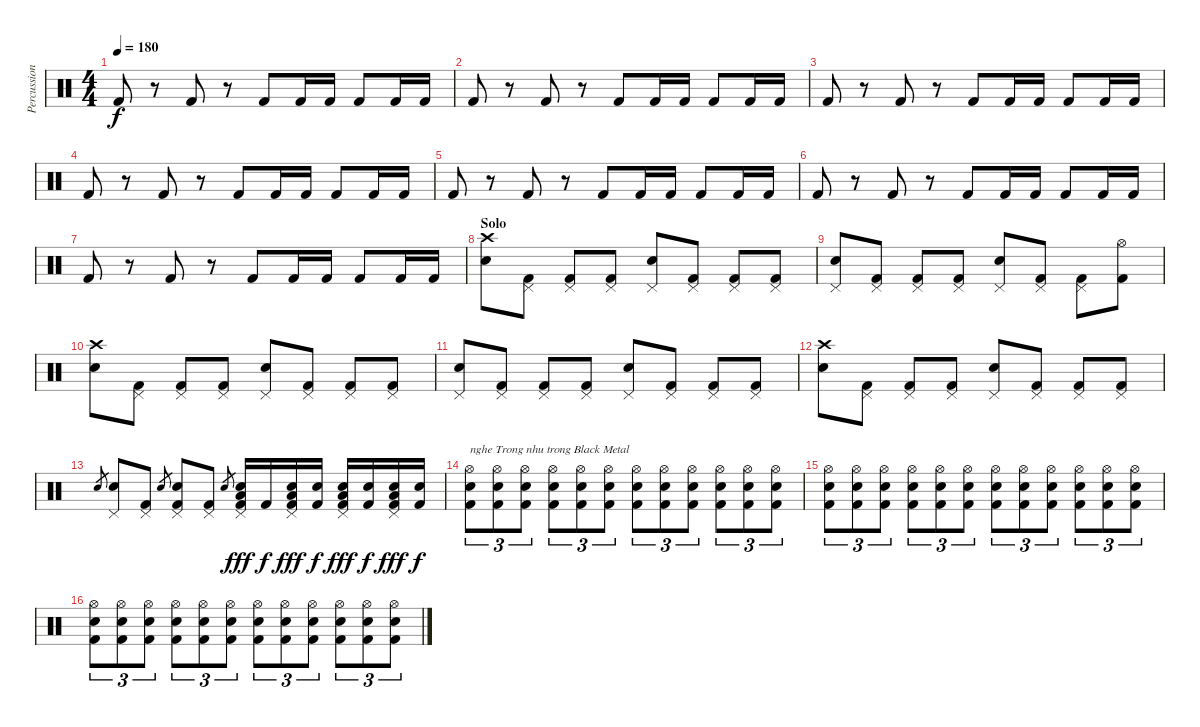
\track ("Percussion" "Percussion") {instrument percussion}
\staff {score}
\articulation defaults
\ts (4 4)
\tempo 180
\clef neutral
\ks c "Kick (hit) 2".8{dy f}
r.8 "Kick (hit) 2".8 r.8 "Kick (hit) 2".8 "Kick (hit) 2".16 "Kick (hit) 2".16 "Kick (hit) 2".8 "Kick (hit) 2".16 "Kick (hit) 2".16 |
"Kick (hit) 2".8 r.8 "Kick (hit) 2".8 r.8 "Kick (hit) 2".8 "Kick (hit) 2".16 "Kick (hit) 2".16 "Kick (hit) 2".8 "Kick (hit) 2".16 "Kick (hit) 2".16 |
"Kick (hit) 2".8 r.8 "Kick (hit) 2".8 r.8 "Kick (hit) 2".8 "Kick (hit) 2".16 "Kick (hit) 2".16 "Kick (hit) 2".8 "Kick (hit) 2".16 "Kick (hit) 2".16 |
"Kick (hit) 2".8 r.8 "Kick (hit) 2".8 r.8 "Kick (hit) 2".8 "Kick (hit) 2".16 "Kick (hit) 2".16 "Kick (hit) 2".8 "Kick (hit) 2".16 "Kick (hit) 2".16 |
"Kick (hit) 2".8 r.8 "Kick (hit) 2".8 r.8 "Kick (hit) 2".8 "Kick (hit) 2".16 "Kick (hit) 2".16 "Kick (hit) 2".8 "Kick (hit) 2".16 "Kick (hit) 2".16 |
"Kick (hit) 2".8 r.8 "Kick (hit) 2".8 r.8 "Kick (hit) 2".8 "Kick (hit) 2".16 "Kick (hit) 2".16 "Kick (hit) 2".8 "Kick (hit) 2".16 "Kick (hit) 2".16 |
"Kick (hit) 2".8 r.8 "Kick (hit) 2".8 r.8 "Kick (hit) 2".8 "Kick (hit) 2".16 "Kick (hit) 2".16 "Kick (hit) 2".8 "Kick (hit) 2".16 "Kick (hit) 2".16 |
\section ("" "Solo")
("Crash high (hit)" "Electric Snare (hit)").8 ("Pedal Hi-Hat (hit)" "Kick (hit) 2").8 ("Pedal Hi-Hat (hit)" "Kick (hit) 2").8 ("Pedal Hi-Hat (hit)" "Kick (hit) 2").8 ("Pedal Hi-Hat (hit)" "Electric Snare (hit)").8 ("Pedal Hi-Hat (hit)" "Kick (hit) 2").8 ("Pedal Hi-Hat (hit)" "Kick (hit) 2").8 ("Pedal Hi-Hat (hit)" "Kick (hit) 2").8 |
("Pedal Hi-Hat (hit)" "Electric Snare (hit)").8 ("Pedal Hi-Hat (hit)" "Kick (hit) 2").8 ("Pedal Hi-Hat (hit)" "Kick (hit) 2").8 ("Pedal Hi-Hat (hit)" "Kick (hit) 2").8 ("Pedal Hi-Hat (hit)" "Electric Snare (hit)").8 ("Pedal Hi-Hat (hit)" "Kick (hit) 2").8 ("Pedal Hi-Hat (hit)" "Kick (hit) 2").8 ("Hi-Hat (open)" "Kick (hit) 2").8 |
("Crash high (hit)" "Electric Snare (hit)").8 ("Pedal Hi-Hat (hit)" "Kick (hit) 2").8 ("Pedal Hi-Hat (hit)" "Kick (hit) 2").8 ("Pedal Hi-Hat (hit)" "Kick (hit) 2").8 ("Pedal Hi-Hat (hit)" "Electric Snare (hit)").8 ("Pedal Hi-Hat (hit)" "Kick (hit) 2").8 ("Pedal Hi-Hat (hit)" "Kick (hit) 2").8 ("Pedal Hi-Hat (hit)" "Kick (hit) 2").8 |
("Pedal Hi-Hat (hit)" "Electric Snare (hit)").8 ("Pedal Hi-Hat (hit)" "Kick (hit) 2").8 ("Pedal Hi-Hat (hit)" "Kick (hit) 2").8 ("Pedal Hi-Hat (hit)" "Kick (hit) 2").8 ("Pedal Hi-Hat (hit)" "Electric Snare (hit)").8 ("Pedal Hi-Hat (hit)" "Kick (hit) 2").8 ("Pedal Hi-Hat (hit)" "Kick (hit) 2").8 ("Pedal Hi-Hat (hit)" "Kick (hit) 2").8 |
("Crash high (hit)" "Electric Snare (hit)").8 ("Pedal Hi-Hat (hit)" "Kick (hit) 2").8 ("Pedal Hi-Hat (hit)" "Kick (hit) 2").8 ("Pedal Hi-Hat (hit)" "Kick (hit) 2").8 ("Pedal Hi-Hat (hit)" "Electric Snare (hit)").8 ("Pedal Hi-Hat (hit)" "Kick (hit) 2").8 ("Pedal Hi-Hat (hit)" "Kick (hit) 2").8 ("Pedal Hi-Hat (hit)" "Kick (hit) 2").8 |
"Electric Snare (hit)".8{gr} ("Pedal Hi-Hat (hit)" "Electric Snare (hit)").8 ("Pedal Hi-Hat (hit)" "Kick (hit) 2").8 "Electric Snare (hit)".8{gr} ("Pedal Hi-Hat (hit)" "Electric Snare (hit)" "Kick (hit) 2").8 ("Pedal Hi-Hat (hit)" "Kick (hit) 2").8 "Electric Snare (hit)".8{gr} ("Pedal Hi-Hat (hit)" "Low Tom (hit)" "Electric Snare (hit)" "Kick (hit) 2").16{dy fff} "Kick (hit) 2".16{dy f} ("Pedal Hi-Hat (hit)" "Low Tom (hit)" "Electric Snare (hit)" "Kick (hit) 2").16{dy fff} ("Electric Snare (hit)" "Kick (hit) 2").16{dy f} ("Pedal Hi-Hat (hit)" "Low Tom (hit)" "Electric Snare (hit)" "Kick (hit) 2").16{dy fff} ("Electric Snare (hit)" "Kick (hit) 2").16{dy f} ("Pedal Hi-Hat (hit)" "Low Tom (hit)" "Electric Snare (hit)" "Kick (hit) 2").16{dy fff} ("Electric Snare (hit)" "Kick (hit) 2").16{dy f} |
("Hi-Hat (open)" "Electric Snare (hit)" "Kick (hit) 2").8{tu (3 2) txt "nghe Trong nhu trong Black Metal"} ("Hi-Hat (open)" "Electric Snare (hit)" "Kick (hit) 2").8{tu (3 2)} ("Hi-Hat (open)" "Electric Snare (hit)" "Kick (hit) 2").8{tu (3 2)} ("Hi-Hat (open)" "Electric Snare (hit)" "Kick (hit) 2").8{tu (3 2)} ("Hi-Hat (open)" "Electric Snare (hit)" "Kick (hit) 2").8{tu (3 2)} ("Hi-Hat (open)" "Electric Snare (hit)" "Kick (hit) 2").8{tu (3 2)} ("Hi-Hat (open)" "Electric Snare (hit)" "Kick (hit) 2").8{tu (3 2)} ("Hi-Hat (open)" "Electric Snare (hit)" "Kick (hit) 2").8{tu (3 2)} ("Hi-Hat (open)" "Electric Snare (hit)" "Kick (hit) 2").8{tu (3 2)} ("Hi-Hat (open)" "Electric Snare (hit)" "Kick (hit) 2").8{tu (3 2)} ("Hi-Hat (open)" "Electric Snare (hit)" "Kick (hit) 2").8{tu (3 2)} ("Hi-Hat (open)" "Electric Snare (hit)" "Kick (hit) 2").8{tu (3 2)} |
("Hi-Hat (open)" "Electric Snare (hit)" "Kick (hit) 2").8{tu (3 2)} ("Hi-Hat (open)" "Electric Snare (hit)" "Kick (hit) 2").8{tu (3 2)} ("Hi-Hat (open)" "Electric Snare (hit)" "Kick (hit) 2").8{tu (3 2)} ("Hi-Hat (open)" "Electric Snare (hit)" "Kick (hit) 2").8{tu (3 2)} ("Hi-Hat (open)" "Electric Snare (hit)" "Kick (hit) 2").8{tu (3 2)} ("Hi-Hat (open)" "Electric Snare (hit)" "Kick (hit) 2").8{tu (3 2)} ("Hi-Hat (open)" "Electric Snare (hit)" "Kick (hit) 2").8{tu (3 2)} ("Hi-Hat (open)" "Electric Snare (hit)" "Kick (hit) 2").8{tu (3 2)} ("Hi-Hat (open)" "Electric Snare (hit)" "Kick (hit) 2").8{tu (3 2)} ("Hi-Hat (open)" "Electric Snare (hit)" "Kick (hit) 2").8{tu (3 2)} ("Hi-Hat (open)" "Electric Snare (hit)" "Kick (hit) 2").8{tu (3 2)} ("Hi-Hat (open)" "Electric Snare (hit)" "Kick (hit) 2").8{tu (3 2)} |
("Hi-Hat (open)" "Electric Snare (hit)" "Kick (hit) 2").8{tu (3 2)} ("Hi-Hat (open)" "Electric Snare (hit)" "Kick (hit) 2").8{tu (3 2)} ("Hi-Hat (open)" "Electric Snare (hit)" "Kick (hit) 2").8{tu (3 2)} ("Hi-Hat (open)" "Electric Snare (hit)" "Kick (hit) 2").8{tu (3 2)} ("Hi-Hat (open)" "Electric Snare (hit)" "Kick (hit) 2").8{tu (3 2)} ("Hi-Hat (open)" "Electric Snare (hit)" "Kick (hit) 2").8{tu (3 2)} ("Hi-Hat (open)" "Electric Snare (hit)" "Kick (hit) 2").8{tu (3 2)} ("Hi-Hat (open)" "Electric Snare (hit)" "Kick (hit) 2").8{tu (3 2)} ("Hi-Hat (open)" "Electric Snare (hit)" "Kick (hit) 2").8{tu (3 2)} ("Hi-Hat (open)" "Electric Snare (hit)" "Kick (hit) 2").8{tu (3 2)} ("Hi-Hat (open)" "Electric Snare (hit)" "Kick (hit) 2").8{tu (3 2)} ("Hi-Hat (open)" "Electric Snare (hit)" "Kick (hit) 2").8{tu (3 2)}
